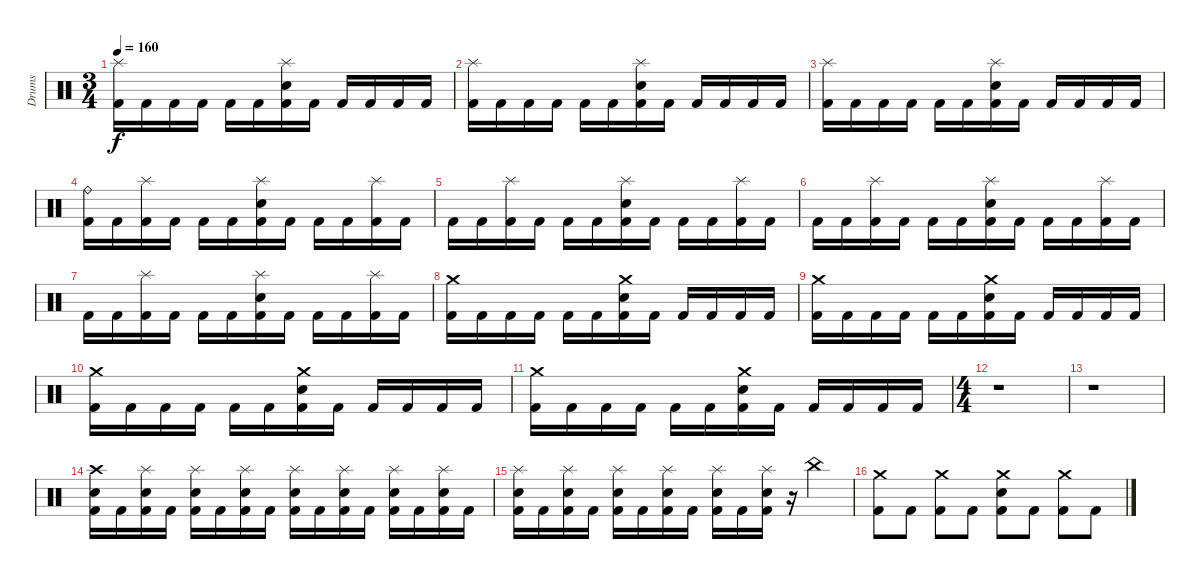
\track ("Drums" "Drums") {instrument percussion}
\staff {score}
\articulation defaults
\ts (3 4)
\tempo 160
\clef neutral
\ks c
("Splash (hit)" "Kick (hit) 2").16{dy f} "Kick (hit) 2".16 "Kick (hit) 2".16 "Kick (hit) 2".16 "Kick (hit) 2".16 "Kick (hit) 2".16 ("Splash (hit)" "Electric Snare (hit)" "Kick (hit) 2").16 "Kick (hit) 2".16 "Kick (hit) 2".16 "Kick (hit) 2".16 "Kick (hit) 2".16 "Kick (hit) 2".16 |
("Splash (hit)" "Kick (hit) 2").16 "Kick (hit) 2".16 "Kick (hit) 2".16 "Kick (hit) 2".16 "Kick (hit) 2".16 "Kick (hit) 2".16 ("Splash (hit)" "Electric Snare (hit)" "Kick (hit) 2").16 "Kick (hit) 2".16 "Kick (hit) 2".16 "Kick (hit) 2".16 "Kick (hit) 2".16 "Kick (hit) 2".16 |
("Splash (hit)" "Kick (hit) 2").16 "Kick (hit) 2".16 "Kick (hit) 2".16 "Kick (hit) 2".16 "Kick (hit) 2".16 "Kick (hit) 2".16 ("Splash (hit)" "Electric Snare (hit)" "Kick (hit) 2").16 "Kick (hit) 2".16 "Kick (hit) 2".16 "Kick (hit) 2".16 "Kick (hit) 2".16 "Kick (hit) 2".16 |
("Ride (bell)" "Kick (hit) 2").16 "Kick (hit) 2".16 ("Splash (hit)" "Kick (hit) 2").16 "Kick (hit) 2".16 "Kick (hit) 2".16 "Kick (hit) 2".16 ("Splash (hit)" "Electric Snare (hit)" "Kick (hit) 2").16 "Kick (hit) 2".16 "Kick (hit) 2".16 "Kick (hit) 2".16 ("Splash (hit)" "Kick (hit) 2").16 "Kick (hit) 2".16 |
"Kick (hit) 2".16 "Kick (hit) 2".16 ("Splash (hit)" "Kick (hit) 2").16 "Kick (hit) 2".16 "Kick (hit) 2".16 "Kick (hit) 2".16 ("Splash (hit)" "Electric Snare (hit)" "Kick (hit) 2").16 "Kick (hit) 2".16 "Kick (hit) 2".16 "Kick (hit) 2".16 ("Splash (hit)" "Kick (hit) 2").16 "Kick (hit) 2".16 |
"Kick (hit) 2".16 "Kick (hit) 2".16 ("Splash (hit)" "Kick (hit) 2").16 "Kick (hit) 2".16 "Kick (hit) 2".16 "Kick (hit) 2".16 ("Splash (hit)" "Electric Snare (hit)" "Kick (hit) 2").16 "Kick (hit) 2".16 "Kick (hit) 2".16 "Kick (hit) 2".16 ("Splash (hit)" "Kick (hit) 2").16 "Kick (hit) 2".16 |
"Kick (hit) 2".16 "Kick (hit) 2".16 ("Splash (hit)" "Kick (hit) 2").16 "Kick (hit) 2".16 "Kick (hit) 2".16 "Kick (hit) 2".16 ("Splash (hit)" "Electric Snare (hit)" "Kick (hit) 2").16 "Kick (hit) 2".16 "Kick (hit) 2".16 "Kick (hit) 2".16 ("Splash (hit)" "Kick (hit) 2").16 "Kick (hit) 2".16 |
("Crash medium (hit)" "Kick (hit) 2").16 "Kick (hit) 2".16 "Kick (hit) 2".16 "Kick (hit) 2".16 "Kick (hit) 2".16 "Kick (hit) 2".16 ("Crash medium (hit)" "Electric Snare (hit)" "Kick (hit) 2").16 "Kick (hit) 2".16 "Kick (hit) 2".16 "Kick (hit) 2".16 "Kick (hit) 2".16 "Kick (hit) 2".16 |
("Crash medium (hit)" "Kick (hit) 2").16 "Kick (hit) 2".16 "Kick (hit) 2".16 "Kick (hit) 2".16 "Kick (hit) 2".16 "Kick (hit) 2".16 ("Crash medium (hit)" "Electric Snare (hit)" "Kick (hit) 2").16 "Kick (hit) 2".16 "Kick (hit) 2".16 "Kick (hit) 2".16 "Kick (hit) 2".16 "Kick (hit) 2".16 |
("Crash medium (hit)" "Kick (hit) 2").16 "Kick (hit) 2".16 "Kick (hit) 2".16 "Kick (hit) 2".16 "Kick (hit) 2".16 "Kick (hit) 2".16 ("Crash medium (hit)" "Electric Snare (hit)" "Kick (hit) 2").16 "Kick (hit) 2".16 "Kick (hit) 2".16 "Kick (hit) 2".16 "Kick (hit) 2".16 "Kick (hit) 2".16 |
("Crash medium (hit)" "Kick (hit) 2").16 "Kick (hit) 2".16 "Kick (hit) 2".16 "Kick (hit) 2".16 "Kick (hit) 2".16 "Kick (hit) 2".16 ("Crash medium (hit)" "Electric Snare (hit)" "Kick (hit) 2").16 "Kick (hit) 2".16 "Kick (hit) 2".16 "Kick (hit) 2".16 "Kick (hit) 2".16 "Kick (hit) 2".16 |
\ts (4 4)
r.1 |
r.1 |
("Crash high (hit)" "Electric Snare (hit)" "Kick (hit) 2").16 "Kick (hit) 2".16 ("Splash (hit)" "Electric Snare (hit)" "Kick (hit) 2").16 "Kick (hit) 2".16 ("Splash (hit)" "Electric Snare (hit)" "Kick (hit) 2").16 "Kick (hit) 2".16 ("Splash (hit)" "Electric Snare (hit)" "Kick (hit) 2").16 "Kick (hit) 2".16 ("Splash (hit)" "Electric Snare (hit)" "Kick (hit) 2").16 "Kick (hit) 2".16 ("Splash (hit)" "Electric Snare (hit)" "Kick (hit) 2").16 "Kick (hit) 2".16 ("Splash (hit)" "Electric Snare (hit)" "Kick (hit) 2").16 "Kick (hit) 2".16 ("Splash (hit)" "Electric Snare (hit)" "Kick (hit) 2").16 "Kick (hit) 2".16 |
("Splash (hit)" "Electric Snare (hit)" "Kick (hit) 2").16 "Kick (hit) 2".16 ("Splash (hit)" "Electric Snare (hit)" "Kick (hit) 2").16 "Kick (hit) 2".16 ("Splash (hit)" "Electric Snare (hit)" "Kick (hit) 2").16 "Kick (hit) 2".16 ("Splash (hit)" "Electric Snare (hit)" "Kick (hit) 2").16 "Kick (hit) 2".16 ("Splash (hit)" "Electric Snare (hit)" "Kick (hit) 2").16 "Kick (hit) 2".16 ("Splash (hit)" "Electric Snare (hit)" "Kick (hit) 2").16 r.16 "China (hit)".4 |
("Crash medium (hit)" "Kick (hit) 2").8 "Kick (hit) 2".8 ("Crash medium (hit)" "Kick (hit) 2").8 "Kick (hit) 2".8 ("Crash medium (hit)" "Electric Snare (hit)" "Kick (hit) 2").8 "Kick (hit) 2".8 ("Crash medium (hit)" "Kick (hit) 2").8 "Kick (hit) 2".8
